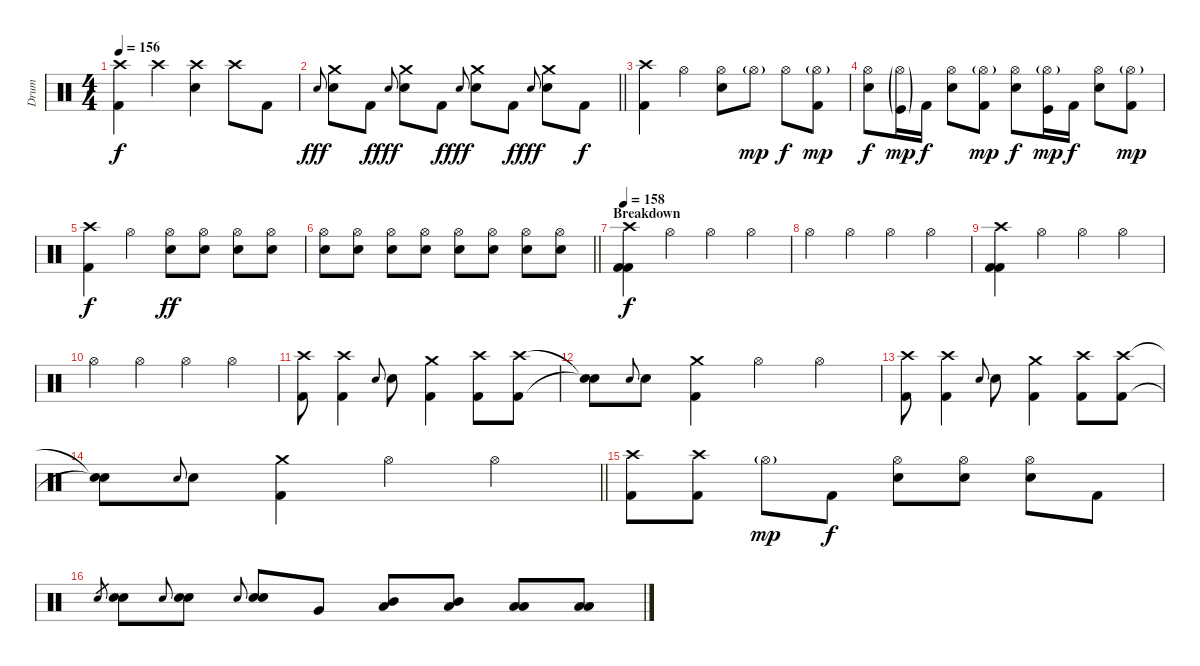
\track ("Drum" "Drum") {instrument percussion}
\staff {score}
\articulation defaults
\ts (4 4)
\tempo 156
\clef neutral
\ks c
("Crash high (hit)" "Kick (hit) 2").4{dy f} "Crash high (hit)".4 ("Crash high (hit)" "Snare (hit) 2").4 "Crash high (hit)".8 "Kick (hit) 2".8 |
\barLineRight lightlight "Snare (hit) 2".8{gr onbeat dy fff}
("Crash medium (hit)" "Snare (hit) 2").8 "Kick (hit) 2".8{dy f} "Snare (hit) 2".8{gr onbeat dy fff} ("Crash medium (hit)" "Snare (hit) 2").8 "Kick (hit) 2".8{dy f} "Snare (hit) 2".8{gr onbeat dy fff} ("Crash medium (hit)" "Snare (hit) 2").8 "Kick (hit) 2".8{dy f} "Snare (hit) 2".8{gr onbeat dy fff} ("Crash medium (hit)" "Snare (hit) 2").8 "Kick (hit) 2".8{dy f} |
\section ("" "")
("Crash high (hit)" "Kick (hit) 2").4 "Hi-Hat (open)".4 ("Hi-Hat (open)" "Snare (hit) 2").8 "Hi-Hat (open)"{g}.8{dy mp} "Hi-Hat (open)".8{dy f} ("Hi-Hat (open)"{g} "Kick (hit) 2").8{dy mp} |
("Hi-Hat (open)" "Snare (hit) 2").8{dy f} ("Hi-Hat (open)"{g} "Kick (hit)"{g}).16{dy mp} "Kick (hit) 2".16{dy f} ("Hi-Hat (open)" "Snare (hit) 2").8 ("Hi-Hat (open)"{g} "Kick (hit) 2").8{dy mp} ("Hi-Hat (open)" "Snare (hit) 2").8{dy f} ("Hi-Hat (open)"{g} "Kick (hit)").16{dy mp} "Kick (hit) 2".16{dy f} ("Hi-Hat (open)" "Snare (hit) 2").8 ("Hi-Hat (open)"{g} "Kick (hit) 2").8{dy mp} |
("Crash high (hit)" "Kick (hit) 2").4{dy f} "Hi-Hat (open)".4 ("Hi-Hat (open)" "Snare (hit) 2").8{dy ff} ("Hi-Hat (open)" "Snare (hit) 2").8 ("Hi-Hat (open)" "Snare (hit) 2").8 ("Hi-Hat (open)" "Snare (hit) 2").8 |
\barLineRight lightlight
("Hi-Hat (open)" "Snare (hit) 2").8 ("Hi-Hat (open)" "Snare (hit) 2").8 ("Hi-Hat (open)" "Snare (hit) 2").8 ("Hi-Hat (open)" "Snare (hit) 2").8 ("Hi-Hat (open)" "Snare (hit) 2").8 ("Hi-Hat (open)" "Snare (hit) 2").8 ("Hi-Hat (open)" "Snare (hit) 2").8 ("Hi-Hat (open)" "Snare (hit) 2").8 |
\section ("" "Breakdown")
\tempo 158
("Crash high (hit)" "Kick (hit) 2" "Kick (hit) 2").4{dy f} "Hi-Hat (open)".4 "Hi-Hat (open)".4 "Hi-Hat (open)".4 |
"Hi-Hat (open)".4 "Hi-Hat (open)".4 "Hi-Hat (open)".4 "Hi-Hat (open)".4 |
("Crash high (hit)" "Kick (hit) 2" "Kick (hit) 2").4 "Hi-Hat (open)".4 "Hi-Hat (open)".4 "Hi-Hat (open)".4 |
"Hi-Hat (open)".4 "Hi-Hat (open)".4 "Hi-Hat (open)".4 "Hi-Hat (open)".4 |
("Crash high (hit)" "Kick (hit) 2").8 ("Crash high (hit)" "Kick (hit) 2").4 "Snare (hit) 2".8{gr onbeat} "Snare (hit) 2".8 ("Crash medium (hit)" "Kick (hit) 2").4 ("Crash high (hit)" "Kick (hit) 2").8 ("Crash high (hit)" "Kick (hit) 2").8 |
("Snare (hit)"{t} "Snare (hit)"{t}).8 "Snare (hit) 2".8{gr onbeat} "Snare (hit) 2".8 ("Crash medium (hit)" "Kick (hit) 2").4 "Hi-Hat (open)".4 "Hi-Hat (open)".4 |
("Crash high (hit)" "Kick (hit) 2").8 ("Crash high (hit)" "Kick (hit) 2").4 "Snare (hit) 2".8{gr onbeat} "Snare (hit) 2".8 ("Crash medium (hit)" "Kick (hit) 2").4 ("Crash high (hit)" "Kick (hit) 2").8 ("Crash high (hit)" "Kick (hit) 2").8 |
\barLineRight lightlight
("Snare (hit)"{t} "Snare (hit)"{t}).8 "Snare (hit) 2".8{gr onbeat} "Snare (hit) 2".8 ("Crash medium (hit)" "Kick (hit) 2").4 "Hi-Hat (open)".4 "Hi-Hat (open)".4 |
\section ("" "")
("Crash high (hit)" "Kick (hit) 2").8 ("Crash high (hit)" "Kick (hit) 2").8 "Hi-Hat (open)"{g}.8{dy mp} "Kick (hit) 2".8{dy f} ("Hi-Hat (open)" "Electric Snare (hit)").8 ("Hi-Hat (open)" "Electric Snare (hit)").8 ("Hi-Hat (open)" "Electric Snare (hit)").8 "Kick (hit) 2".8 |
"Electric Snare (hit)".8{gr} ("Snare (hit) 2" "Electric Snare (hit)").8 "Electric Snare (hit)".8{gr onbeat} ("Snare (hit) 2" "Electric Snare (hit)").8 "Electric Snare (hit)".8{gr onbeat} ("Snare (hit) 2" "Electric Snare (hit)").8 "Very Low Tom (hit)".8 ("Low Tom (hit)" "Mid Tom (hit)").8 ("Low Tom (hit)" "Mid Tom (hit)").8 ("Low Tom (hit)" "Low Tom (hit)").8 ("Low Tom (hit)" "Low Tom (hit)").8
